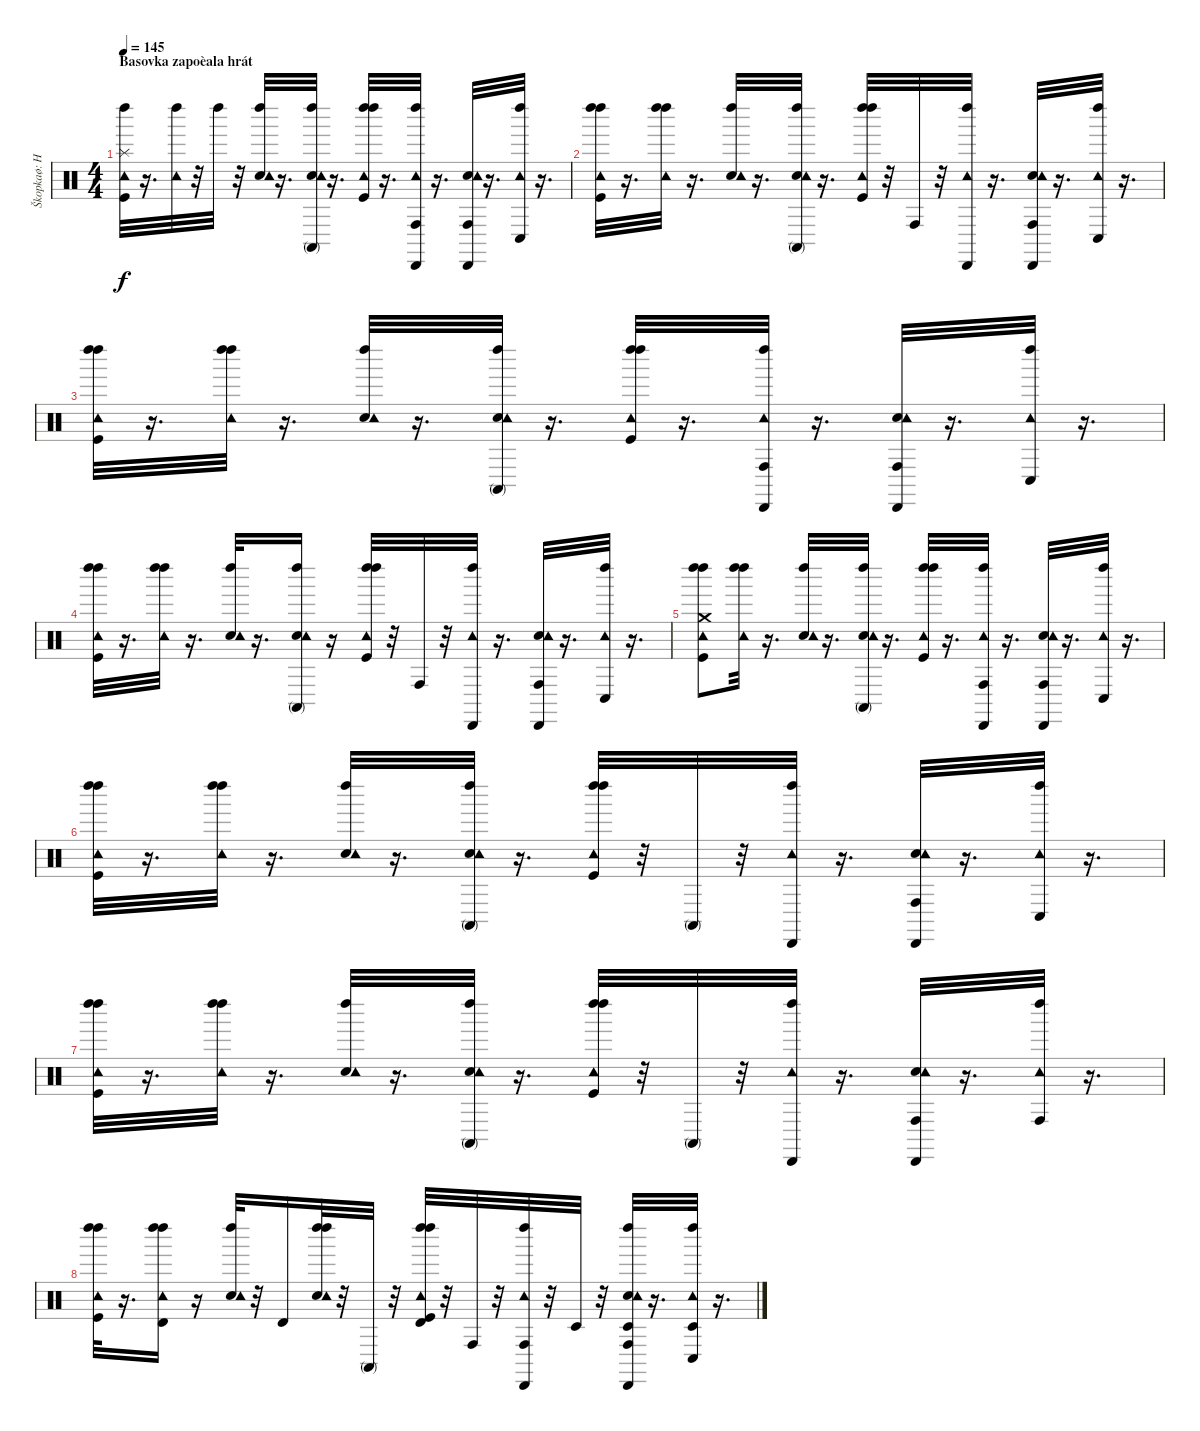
\track ("Škopkaø: Hurvajs" "Škopkaø: H") {instrument percussion}
\staff {score}
\articulation defaults
\ts (4 4)
\section ("" "Basovka zapoèala hrát")
\tempo 145
\clef neutral
\ks c
("Splash (hit)" "Kick (hit)" "Tambourine (hit)" "Left Maraca (hit)").32{dy f} r.16{d} ("Tambourine (hit)" "Left Maraca (hit)").32 r.32 "Left Maraca (hit)".32 r.32 ("Snare (hit) 2" "Tambourine (hit)" "Left Maraca (hit)").32 r.16{d} ("Snare (hit) 2" "Tambourine (hit)" "Conga high (mute)" "Left Maraca (hit)").32 r.16{d} ("Kick (hit)" "Tambourine (hit)" "Left Maraca (hit)" "Left Maraca (hit)").32 r.16{d} ("Tambourine (hit)" "Conga high (hit)" "Cabasa (hit)" "Left Maraca (hit)").32 r.16{d} ("Snare (hit) 2" "Tambourine (hit)" "Conga high (hit)" "Cabasa (hit)").32 r.16{d} ("Tambourine (hit)" "Conga low (hit)" "Left Maraca (hit)").32 r.16{d} |
("Kick (hit)" "Tambourine (hit)" "Left Maraca (hit)" "Left Maraca (hit)").32 r.16{d} ("Tambourine (hit)" "Left Maraca (hit)" "Left Maraca (hit)").32 r.16{d} ("Snare (hit) 2" "Tambourine (hit)" "Left Maraca (hit)").32 r.16{d} ("Snare (hit) 2" "Tambourine (hit)" "Conga high (mute)" "Left Maraca (hit)").32 r.16{d} ("Kick (hit)" "Tambourine (hit)" "Left Maraca (hit)" "Left Maraca (hit)").32 r.32 "Conga high (hit)".32 r.32 ("Tambourine (hit)" "Cabasa (hit)" "Left Maraca (hit)").32 r.16{d} ("Snare (hit) 2" "Tambourine (hit)" "Conga high (hit)" "Cabasa (hit)").32 r.16{d} ("Tambourine (hit)" "Conga low (hit)" "Left Maraca (hit)").32 r.16{d} |
("Kick (hit)" "Tambourine (hit)" "Left Maraca (hit)" "Left Maraca (hit)").32 r.16{d} ("Tambourine (hit)" "Left Maraca (hit)" "Left Maraca (hit)").32 r.16{d} ("Snare (hit) 2" "Tambourine (hit)" "Left Maraca (hit)").32 r.16{d} ("Snare (hit) 2" "Tambourine (hit)" "Conga high (mute)" "Left Maraca (hit)").32 r.16{d} ("Kick (hit)" "Tambourine (hit)" "Left Maraca (hit)" "Left Maraca (hit)").32 r.16{d} ("Tambourine (hit)" "Conga high (hit)" "Cabasa (hit)" "Left Maraca (hit)").32 r.16{d} ("Snare (hit) 2" "Tambourine (hit)" "Conga high (hit)" "Cabasa (hit)").32 r.16{d} ("Tambourine (hit)" "Conga low (hit)" "Left Maraca (hit)").32 r.16{d} |
("Kick (hit)" "Tambourine (hit)" "Left Maraca (hit)" "Left Maraca (hit)").32 r.16{d} ("Tambourine (hit)" "Left Maraca (hit)" "Left Maraca (hit)").32 r.16{d} ("Snare (hit) 2" "Tambourine (hit)" "Left Maraca (hit)").32 r.16{d} ("Snare (hit) 2" "Tambourine (hit)" "Conga high (mute)" "Left Maraca (hit)").16 r.16 ("Kick (hit)" "Tambourine (hit)" "Left Maraca (hit)" "Left Maraca (hit)").32 r.32 "Conga high (hit)".32 r.32 ("Tambourine (hit)" "Cabasa (hit)" "Left Maraca (hit)").32 r.16{d} ("Snare (hit) 2" "Tambourine (hit)" "Conga high (hit)" "Cabasa (hit)").32 r.16{d} ("Tambourine (hit)" "Conga low (hit)" "Left Maraca (hit)").32 r.16{d} |
("Kick (hit)" "Tambourine (hit)" "Left Maraca (hit)" "Left Maraca (hit)" "Crash medium (hit)").8 ("Tambourine (hit)" "Left Maraca (hit)" "Left Maraca (hit)").32 r.16{d} ("Snare (hit) 2" "Tambourine (hit)" "Left Maraca (hit)").32 r.16{d} ("Snare (hit) 2" "Tambourine (hit)" "Conga high (mute)" "Left Maraca (hit)").32 r.16{d} ("Kick (hit)" "Tambourine (hit)" "Left Maraca (hit)" "Left Maraca (hit)").32 r.16{d} ("Tambourine (hit)" "Conga high (hit)" "Cabasa (hit)" "Left Maraca (hit)").32 r.16{d} ("Snare (hit) 2" "Tambourine (hit)" "Conga high (hit)" "Cabasa (hit)").32 r.16{d} ("Tambourine (hit)" "Conga low (hit)" "Left Maraca (hit)").32 r.16{d} |
("Kick (hit)" "Tambourine (hit)" "Left Maraca (hit)" "Left Maraca (hit)").32 r.16{d} ("Tambourine (hit)" "Left Maraca (hit)" "Left Maraca (hit)").32 r.16{d} ("Snare (hit) 2" "Tambourine (hit)" "Left Maraca (hit)").32 r.16{d} ("Snare (hit) 2" "Tambourine (hit)" "Conga high (mute)" "Left Maraca (hit)").32 r.16{d} ("Kick (hit)" "Tambourine (hit)" "Left Maraca (hit)" "Left Maraca (hit)").32 r.32 "Conga high (mute)".32 r.32 ("Tambourine (hit)" "Cabasa (hit)" "Left Maraca (hit)").32 r.16{d} ("Snare (hit) 2" "Tambourine (hit)" "Conga high (hit)" "Cabasa (hit)").32 r.16{d} ("Tambourine (hit)" "Conga low (hit)" "Left Maraca (hit)").32 r.16{d} |
("Kick (hit)" "Tambourine (hit)" "Left Maraca (hit)" "Left Maraca (hit)").32 r.16{d} ("Tambourine (hit)" "Left Maraca (hit)" "Left Maraca (hit)").32 r.16{d} ("Snare (hit) 2" "Tambourine (hit)" "Left Maraca (hit)").32 r.16{d} ("Snare (hit) 2" "Tambourine (hit)" "Conga high (mute)" "Left Maraca (hit)").32 r.16{d} ("Kick (hit)" "Tambourine (hit)" "Left Maraca (hit)" "Left Maraca (hit)").32 r.32 "Conga high (mute)".32 r.32 ("Tambourine (hit)" "Cabasa (hit)" "Left Maraca (hit)").32 r.16{d} ("Snare (hit) 2" "Tambourine (hit)" "Conga high (hit)" "Cabasa (hit)").32 r.16{d} ("Tambourine (hit)" "Conga high (hit)" "Left Maraca (hit)").32 r.16{d} |
("Kick (hit)" "Tambourine (hit)" "Left Maraca (hit)" "Left Maraca (hit)").32 r.16{d} ("Timbale high (hit)" "Tambourine (hit)" "Left Maraca (hit)" "Left Maraca (hit)").16 r.16 ("Snare (hit) 2" "Tambourine (hit)" "Left Maraca (hit)").32 r.32 "Timbale high (hit)".16 ("Snare (hit) 2" "Tambourine (hit)" "Left Maraca (hit)" "Left Maraca (hit)").32 r.32 "Conga high (mute)".32 r.32 ("Kick (hit)" "Tambourine (hit)" "Left Maraca (hit)" "Left Maraca (hit)" "Timbale high (hit)").32 r.32 "Conga high (hit)".32 r.32 ("Tambourine (hit)" "Conga high (hit)" "Cabasa (hit)" "Left Maraca (hit)").32 r.32 "Timbale low (hit)".32 r.32 ("Snare (hit) 2" "Tambourine (hit)" "Conga high (hit)" "Cabasa (hit)" "Left Maraca (hit)" "Timbale low (hit)").32 r.16{d} ("Timbale low (hit)" "Tambourine (hit)" "Conga low (hit)" "Left Maraca (hit)").32 r.16{d}
